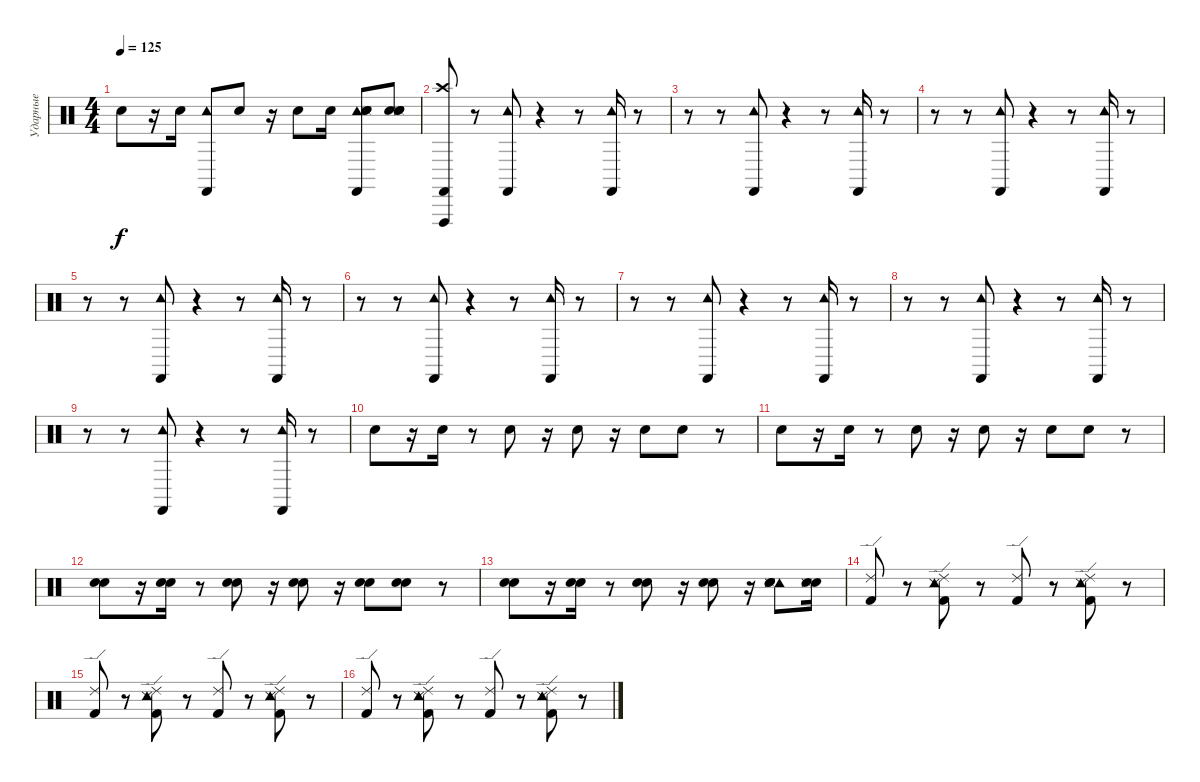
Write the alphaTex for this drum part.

\track ("Ударные" "Ударные") {instrument percussion}
\staff {score}
\articulation defaults
\ts (4 4)
\tempo 125
\clef neutral
\ks c "Snare (hit) 2".8{dy f}
r.16 "Snare (hit) 2".16 ("Castanets (hit)" "Tambourine (hit)").8 "Snare (hit) 2".8 r.16 "Snare (hit) 2".8 "Snare (hit) 2".16 ("Castanets (hit)" "Tambourine (hit)" "Hand Clap (hit)" "Snare (side stick) 3" "Hand Clap (hit)").8 ("Snare (hit) 2" "Hand Clap (hit)" "Snare (side stick) 3" "Hand Clap (hit)").8 |
("Castanets (hit)" "Vibraslap (hit)" "Crash high (hit)").8 r.8 ("Castanets (hit)" "Tambourine (hit)").8 r.4 r.8 ("Castanets (hit)" "Tambourine (hit)").16 r.8 |
r.8 r.8 ("Castanets (hit)" "Tambourine (hit)").8 r.4 r.8 ("Castanets (hit)" "Tambourine (hit)").16 r.8 |
r.8 r.8 ("Castanets (hit)" "Tambourine (hit)").8 r.4 r.8 ("Castanets (hit)" "Tambourine (hit)").16 r.8 |
r.8 r.8 ("Castanets (hit)" "Tambourine (hit)").8 r.4 r.8 ("Castanets (hit)" "Tambourine (hit)").16 r.8 |
r.8 r.8 ("Castanets (hit)" "Tambourine (hit)").8 r.4 r.8 ("Castanets (hit)" "Tambourine (hit)").16 r.8 |
r.8 r.8 ("Castanets (hit)" "Tambourine (hit)").8 r.4 r.8 ("Castanets (hit)" "Tambourine (hit)").16 r.8 |
r.8 r.8 ("Castanets (hit)" "Tambourine (hit)").8 r.4 r.8 ("Castanets (hit)" "Tambourine (hit)").16 r.8 |
r.8 r.8 ("Castanets (hit)" "Tambourine (hit)").8 r.4 r.8 ("Castanets (hit)" "Tambourine (hit)").16 r.8 |
"Hand Clap (hit)".8 r.16 "Hand Clap (hit)".16 r.8 "Hand Clap (hit)".8 r.16 "Hand Clap (hit)".8 r.16 "Hand Clap (hit)".8 "Hand Clap (hit)".8 r.8 |
"Hand Clap (hit)".8 r.16 "Hand Clap (hit)".16 r.8 "Hand Clap (hit)".8 r.16 "Hand Clap (hit)".8 r.16 "Hand Clap (hit)".8 "Hand Clap (hit)".8 r.8 |
("Hand Clap (hit)" "Snare (hit) 2").8 r.16 ("Hand Clap (hit)" "Snare (hit) 2").16 r.8 ("Hand Clap (hit)" "Snare (hit) 2").8 r.16 ("Hand Clap (hit)" "Snare (hit) 2").8 r.16 ("Hand Clap (hit)" "Snare (hit) 2").8 ("Hand Clap (hit)" "Snare (hit) 2").8 r.8 |
("Snare (hit) 2" "Hand Clap (hit)").8 r.16 ("Snare (hit) 2" "Hand Clap (hit)").16 r.8 ("Snare (hit) 2" "Hand Clap (hit)").8 r.16 ("Snare (hit) 2" "Hand Clap (hit)").8 r.16 ("Tambourine (hit)" "Hand Clap (hit)" "Snare (side stick) 3" "Hand Clap (hit)").8 ("Hand Clap (hit)" "Snare (side stick) 3" "Hand Clap (hit)").16 |
("Kick (hit) 2" "Ride (edge) 2").8 r.8 ("Snare (side stick) 3" "Tambourine (hit)" "Kick (hit) 2" "Ride (edge) 2").8 r.8 ("Kick (hit) 2" "Ride (edge) 2").8 r.8 ("Snare (side stick) 3" "Tambourine (hit)" "Kick (hit) 2" "Ride (edge) 2").8 r.8 |
("Kick (hit) 2" "Ride (edge) 2").8 r.8 ("Snare (side stick) 3" "Tambourine (hit)" "Kick (hit) 2" "Ride (edge) 2").8 r.8 ("Kick (hit) 2" "Ride (edge) 2").8 r.8 ("Snare (side stick) 3" "Tambourine (hit)" "Kick (hit) 2" "Ride (edge) 2").8 r.8 |
("Kick (hit) 2" "Ride (edge) 2").8 r.8 ("Snare (side stick) 3" "Tambourine (hit)" "Kick (hit) 2" "Ride (edge) 2").8 r.8 ("Kick (hit) 2" "Ride (edge) 2").8 r.8 ("Snare (side stick) 3" "Tambourine (hit)" "Kick (hit) 2" "Ride (edge) 2").8 r.8
